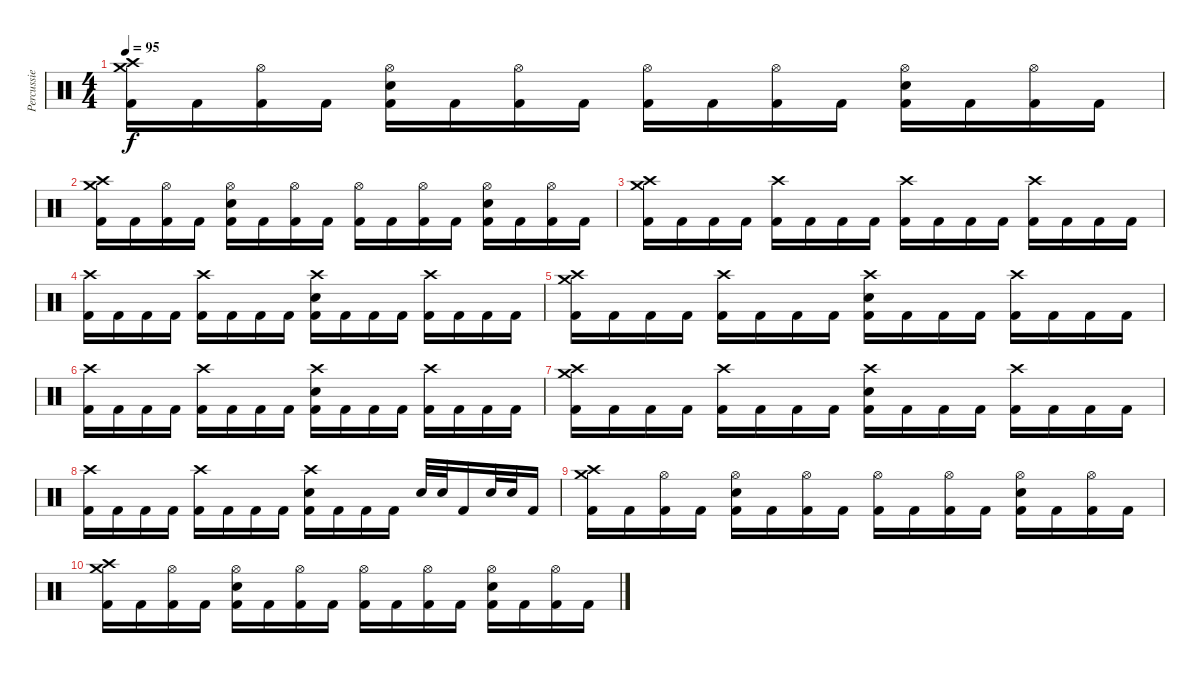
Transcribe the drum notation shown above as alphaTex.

\track ("Percussie" "Percussie") {instrument percussion}
\staff {score}
\articulation defaults
\ts (4 4)
\tempo 95
\clef neutral
\ks c
("Crash medium (hit)" "Crash high (hit)" "Kick (hit) 2").16{dy f} "Kick (hit) 2".16 ("Hi-Hat (open)" "Kick (hit) 2").16 "Kick (hit) 2".16 ("Hi-Hat (open)" "Electric Snare (hit)" "Kick (hit) 2").16 "Kick (hit) 2".16 ("Hi-Hat (open)" "Kick (hit) 2").16 "Kick (hit) 2".16 ("Hi-Hat (open)" "Kick (hit) 2").16 "Kick (hit) 2".16 ("Hi-Hat (open)" "Kick (hit) 2").16 "Kick (hit) 2".16 ("Hi-Hat (open)" "Electric Snare (hit)" "Kick (hit) 2").16 "Kick (hit) 2".16 ("Hi-Hat (open)" "Kick (hit) 2").16 "Kick (hit) 2".16 |
("Crash medium (hit)" "Crash high (hit)" "Kick (hit) 2").16 "Kick (hit) 2".16 ("Hi-Hat (open)" "Kick (hit) 2").16 "Kick (hit) 2".16 ("Hi-Hat (open)" "Electric Snare (hit)" "Kick (hit) 2").16 "Kick (hit) 2".16 ("Hi-Hat (open)" "Kick (hit) 2").16 "Kick (hit) 2".16 ("Hi-Hat (open)" "Kick (hit) 2").16 "Kick (hit) 2".16 ("Hi-Hat (open)" "Kick (hit) 2").16 "Kick (hit) 2".16 ("Hi-Hat (open)" "Electric Snare (hit)" "Kick (hit) 2").16 "Kick (hit) 2".16 ("Hi-Hat (open)" "Kick (hit) 2").16 "Kick (hit) 2".16 |
("Crash medium (hit)" "Crash high (hit)" "Kick (hit) 2").16 "Kick (hit) 2".16 "Kick (hit) 2".16 "Kick (hit) 2".16 ("Crash high (hit)" "Kick (hit) 2").16 "Kick (hit) 2".16 "Kick (hit) 2".16 "Kick (hit) 2".16 ("Crash high (hit)" "Kick (hit) 2").16 "Kick (hit) 2".16 "Kick (hit) 2".16 "Kick (hit) 2".16 ("Crash high (hit)" "Kick (hit) 2").16 "Kick (hit) 2".16 "Kick (hit) 2".16 "Kick (hit) 2".16 |
("Crash high (hit)" "Kick (hit) 2").16 "Kick (hit) 2".16 "Kick (hit) 2".16 "Kick (hit) 2".16 ("Crash high (hit)" "Kick (hit) 2").16 "Kick (hit) 2".16 "Kick (hit) 2".16 "Kick (hit) 2".16 ("Crash high (hit)" "Electric Snare (hit)" "Kick (hit) 2").16 "Kick (hit) 2".16 "Kick (hit) 2".16 "Kick (hit) 2".16 ("Crash high (hit)" "Kick (hit) 2").16 "Kick (hit) 2".16 "Kick (hit) 2".16 "Kick (hit) 2".16 |
("Crash medium (hit)" "Crash high (hit)" "Kick (hit) 2").16 "Kick (hit) 2".16 "Kick (hit) 2".16 "Kick (hit) 2".16 ("Crash high (hit)" "Kick (hit) 2").16 "Kick (hit) 2".16 "Kick (hit) 2".16 "Kick (hit) 2".16 ("Crash high (hit)" "Electric Snare (hit)" "Kick (hit) 2").16 "Kick (hit) 2".16 "Kick (hit) 2".16 "Kick (hit) 2".16 ("Crash high (hit)" "Kick (hit) 2").16 "Kick (hit) 2".16 "Kick (hit) 2".16 "Kick (hit) 2".16 |
("Crash high (hit)" "Kick (hit) 2").16 "Kick (hit) 2".16 "Kick (hit) 2".16 "Kick (hit) 2".16 ("Crash high (hit)" "Kick (hit) 2").16 "Kick (hit) 2".16 "Kick (hit) 2".16 "Kick (hit) 2".16 ("Crash high (hit)" "Electric Snare (hit)" "Kick (hit) 2").16 "Kick (hit) 2".16 "Kick (hit) 2".16 "Kick (hit) 2".16 ("Crash high (hit)" "Kick (hit) 2").16 "Kick (hit) 2".16 "Kick (hit) 2".16 "Kick (hit) 2".16 |
("Crash medium (hit)" "Crash high (hit)" "Kick (hit) 2").16 "Kick (hit) 2".16 "Kick (hit) 2".16 "Kick (hit) 2".16 ("Crash high (hit)" "Kick (hit) 2").16 "Kick (hit) 2".16 "Kick (hit) 2".16 "Kick (hit) 2".16 ("Crash high (hit)" "Electric Snare (hit)" "Kick (hit) 2").16 "Kick (hit) 2".16 "Kick (hit) 2".16 "Kick (hit) 2".16 ("Crash high (hit)" "Kick (hit) 2").16 "Kick (hit) 2".16 "Kick (hit) 2".16 "Kick (hit) 2".16 |
("Crash high (hit)" "Kick (hit) 2").16 "Kick (hit) 2".16 "Kick (hit) 2".16 "Kick (hit) 2".16 ("Crash high (hit)" "Kick (hit) 2").16 "Kick (hit) 2".16 "Kick (hit) 2".16 "Kick (hit) 2".16 ("Crash high (hit)" "Electric Snare (hit)" "Kick (hit) 2").16 "Kick (hit) 2".16 "Kick (hit) 2".16 "Kick (hit) 2".16 "Electric Snare (hit)".32 "Electric Snare (hit)".32 "Kick (hit) 2".16 "Electric Snare (hit)".32 "Electric Snare (hit)".32 "Kick (hit) 2".16 |
("Crash medium (hit)" "Crash high (hit)" "Kick (hit) 2").16 "Kick (hit) 2".16 ("Hi-Hat (open)" "Kick (hit) 2").16 "Kick (hit) 2".16 ("Hi-Hat (open)" "Electric Snare (hit)" "Kick (hit) 2").16 "Kick (hit) 2".16 ("Hi-Hat (open)" "Kick (hit) 2").16 "Kick (hit) 2".16 ("Hi-Hat (open)" "Kick (hit) 2").16 "Kick (hit) 2".16 ("Hi-Hat (open)" "Kick (hit) 2").16 "Kick (hit) 2".16 ("Hi-Hat (open)" "Electric Snare (hit)" "Kick (hit) 2").16 "Kick (hit) 2".16 ("Hi-Hat (open)" "Kick (hit) 2").16 "Kick (hit) 2".16 |
("Crash medium (hit)" "Crash high (hit)" "Kick (hit) 2").16 "Kick (hit) 2".16 ("Hi-Hat (open)" "Kick (hit) 2").16 "Kick (hit) 2".16 ("Hi-Hat (open)" "Electric Snare (hit)" "Kick (hit) 2").16 "Kick (hit) 2".16 ("Hi-Hat (open)" "Kick (hit) 2").16 "Kick (hit) 2".16 ("Hi-Hat (open)" "Kick (hit) 2").16 "Kick (hit) 2".16 ("Hi-Hat (open)" "Kick (hit) 2").16 "Kick (hit) 2".16 ("Hi-Hat (open)" "Electric Snare (hit)" "Kick (hit) 2").16 "Kick (hit) 2".16 ("Hi-Hat (open)" "Kick (hit) 2").16 "Kick (hit) 2".16
